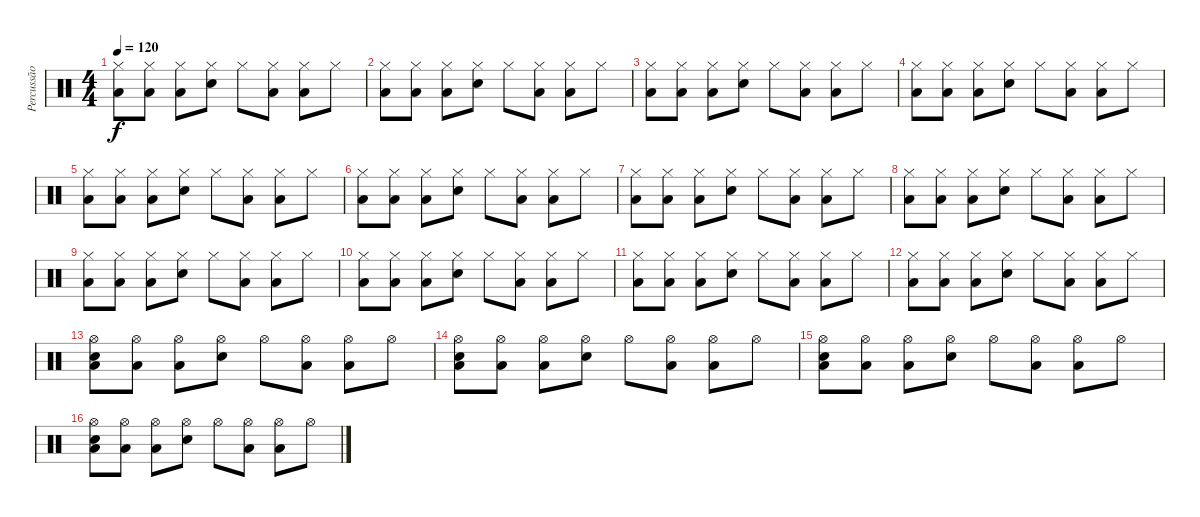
\track ("Percussão" "Percussão") {instrument percussion}
\staff {score}
\articulation defaults
\ts (4 4)
\tempo 120
\clef neutral
\ks c
("Low Floor Tom (hit)" "Hi-Hat (closed)").8{dy f} ("Low Floor Tom (hit)" "Hi-Hat (closed)").8 ("Low Floor Tom (hit)" "Hi-Hat (closed)").8 ("Snare (hit) 2" "Hi-Hat (closed)").8 "Hi-Hat (closed)".8 ("Low Floor Tom (hit)" "Hi-Hat (closed)").8 ("Low Floor Tom (hit)" "Hi-Hat (closed)").8 "Hi-Hat (closed)".8 |
("Low Floor Tom (hit)" "Hi-Hat (closed)").8 ("Low Floor Tom (hit)" "Hi-Hat (closed)").8 ("Low Floor Tom (hit)" "Hi-Hat (closed)").8 ("Snare (hit) 2" "Hi-Hat (closed)").8 "Hi-Hat (closed)".8 ("Low Floor Tom (hit)" "Hi-Hat (closed)").8 ("Low Floor Tom (hit)" "Hi-Hat (closed)").8 "Hi-Hat (closed)".8 |
("Low Floor Tom (hit)" "Hi-Hat (closed)").8 ("Low Floor Tom (hit)" "Hi-Hat (closed)").8 ("Low Floor Tom (hit)" "Hi-Hat (closed)").8 ("Snare (hit) 2" "Hi-Hat (closed)").8 "Hi-Hat (closed)".8 ("Low Floor Tom (hit)" "Hi-Hat (closed)").8 ("Low Floor Tom (hit)" "Hi-Hat (closed)").8 "Hi-Hat (closed)".8 |
("Low Floor Tom (hit)" "Hi-Hat (closed)").8 ("Low Floor Tom (hit)" "Hi-Hat (closed)").8 ("Low Floor Tom (hit)" "Hi-Hat (closed)").8 ("Snare (hit) 2" "Hi-Hat (closed)").8 "Hi-Hat (closed)".8 ("Low Floor Tom (hit)" "Hi-Hat (closed)").8 ("Low Floor Tom (hit)" "Hi-Hat (closed)").8 "Hi-Hat (closed)".8 |
("Low Floor Tom (hit)" "Hi-Hat (closed)").8 ("Low Floor Tom (hit)" "Hi-Hat (closed)").8 ("Low Floor Tom (hit)" "Hi-Hat (closed)").8 ("Snare (hit) 2" "Hi-Hat (closed)").8 "Hi-Hat (closed)".8 ("Low Floor Tom (hit)" "Hi-Hat (closed)").8 ("Low Floor Tom (hit)" "Hi-Hat (closed)").8 "Hi-Hat (closed)".8 |
("Low Floor Tom (hit)" "Hi-Hat (closed)").8 ("Low Floor Tom (hit)" "Hi-Hat (closed)").8 ("Low Floor Tom (hit)" "Hi-Hat (closed)").8 ("Snare (hit) 2" "Hi-Hat (closed)").8 "Hi-Hat (closed)".8 ("Low Floor Tom (hit)" "Hi-Hat (closed)").8 ("Low Floor Tom (hit)" "Hi-Hat (closed)").8 "Hi-Hat (closed)".8 |
("Low Floor Tom (hit)" "Hi-Hat (closed)").8 ("Low Floor Tom (hit)" "Hi-Hat (closed)").8 ("Low Floor Tom (hit)" "Hi-Hat (closed)").8 ("Snare (hit) 2" "Hi-Hat (closed)").8 "Hi-Hat (closed)".8 ("Low Floor Tom (hit)" "Hi-Hat (closed)").8 ("Low Floor Tom (hit)" "Hi-Hat (closed)").8 "Hi-Hat (closed)".8 |
("Low Floor Tom (hit)" "Hi-Hat (closed)").8 ("Low Floor Tom (hit)" "Hi-Hat (closed)").8 ("Low Floor Tom (hit)" "Hi-Hat (closed)").8 ("Snare (hit) 2" "Hi-Hat (closed)").8 "Hi-Hat (closed)".8 ("Low Floor Tom (hit)" "Hi-Hat (closed)").8 ("Low Floor Tom (hit)" "Hi-Hat (closed)").8 "Hi-Hat (closed)".8 |
("Low Floor Tom (hit)" "Hi-Hat (closed)").8 ("Low Floor Tom (hit)" "Hi-Hat (closed)").8 ("Low Floor Tom (hit)" "Hi-Hat (closed)").8 ("Snare (hit) 2" "Hi-Hat (closed)").8 "Hi-Hat (closed)".8 ("Low Floor Tom (hit)" "Hi-Hat (closed)").8 ("Low Floor Tom (hit)" "Hi-Hat (closed)").8 "Hi-Hat (closed)".8 |
("Low Floor Tom (hit)" "Hi-Hat (closed)").8 ("Low Floor Tom (hit)" "Hi-Hat (closed)").8 ("Low Floor Tom (hit)" "Hi-Hat (closed)").8 ("Snare (hit) 2" "Hi-Hat (closed)").8 "Hi-Hat (closed)".8 ("Low Floor Tom (hit)" "Hi-Hat (closed)").8 ("Low Floor Tom (hit)" "Hi-Hat (closed)").8 "Hi-Hat (closed)".8 |
("Low Floor Tom (hit)" "Hi-Hat (closed)").8 ("Low Floor Tom (hit)" "Hi-Hat (closed)").8 ("Low Floor Tom (hit)" "Hi-Hat (closed)").8 ("Snare (hit) 2" "Hi-Hat (closed)").8 "Hi-Hat (closed)".8 ("Low Floor Tom (hit)" "Hi-Hat (closed)").8 ("Low Floor Tom (hit)" "Hi-Hat (closed)").8 "Hi-Hat (closed)".8 |
("Low Floor Tom (hit)" "Hi-Hat (closed)").8 ("Low Floor Tom (hit)" "Hi-Hat (closed)").8 ("Low Floor Tom (hit)" "Hi-Hat (closed)").8 ("Snare (hit) 2" "Hi-Hat (closed)").8 "Hi-Hat (closed)".8 ("Low Floor Tom (hit)" "Hi-Hat (closed)").8 ("Low Floor Tom (hit)" "Hi-Hat (closed)").8 "Hi-Hat (closed)".8 |
("Snare (hit) 2" "Low Tom (hit)" "Hi-Hat (open)").8 ("Low Floor Tom (hit)" "Hi-Hat (open)").8 ("Low Floor Tom (hit)" "Hi-Hat (open)").8 ("Snare (hit) 2" "Hi-Hat (open)").8 "Hi-Hat (open)".8 ("Low Floor Tom (hit)" "Hi-Hat (open)").8 ("Low Floor Tom (hit)" "Hi-Hat (open)").8 "Hi-Hat (open)".8 |
("Snare (hit) 2" "Low Tom (hit)" "Hi-Hat (open)").8 ("Low Floor Tom (hit)" "Hi-Hat (open)").8 ("Low Floor Tom (hit)" "Hi-Hat (open)").8 ("Snare (hit) 2" "Hi-Hat (open)").8 "Hi-Hat (open)".8 ("Low Floor Tom (hit)" "Hi-Hat (open)").8 ("Low Floor Tom (hit)" "Hi-Hat (open)").8 "Hi-Hat (open)".8 |
("Snare (hit) 2" "Low Tom (hit)" "Hi-Hat (open)").8 ("Low Floor Tom (hit)" "Hi-Hat (open)").8 ("Low Floor Tom (hit)" "Hi-Hat (open)").8 ("Snare (hit) 2" "Hi-Hat (open)").8 "Hi-Hat (open)".8 ("Low Floor Tom (hit)" "Hi-Hat (open)").8 ("Low Floor Tom (hit)" "Hi-Hat (open)").8 "Hi-Hat (open)".8 |
("Snare (hit) 2" "Low Tom (hit)" "Hi-Hat (open)").8 ("Low Floor Tom (hit)" "Hi-Hat (open)").8 ("Low Floor Tom (hit)" "Hi-Hat (open)").8 ("Snare (hit) 2" "Hi-Hat (open)").8 "Hi-Hat (open)".8 ("Low Floor Tom (hit)" "Hi-Hat (open)").8 ("Low Floor Tom (hit)" "Hi-Hat (open)").8 "Hi-Hat (open)".8
